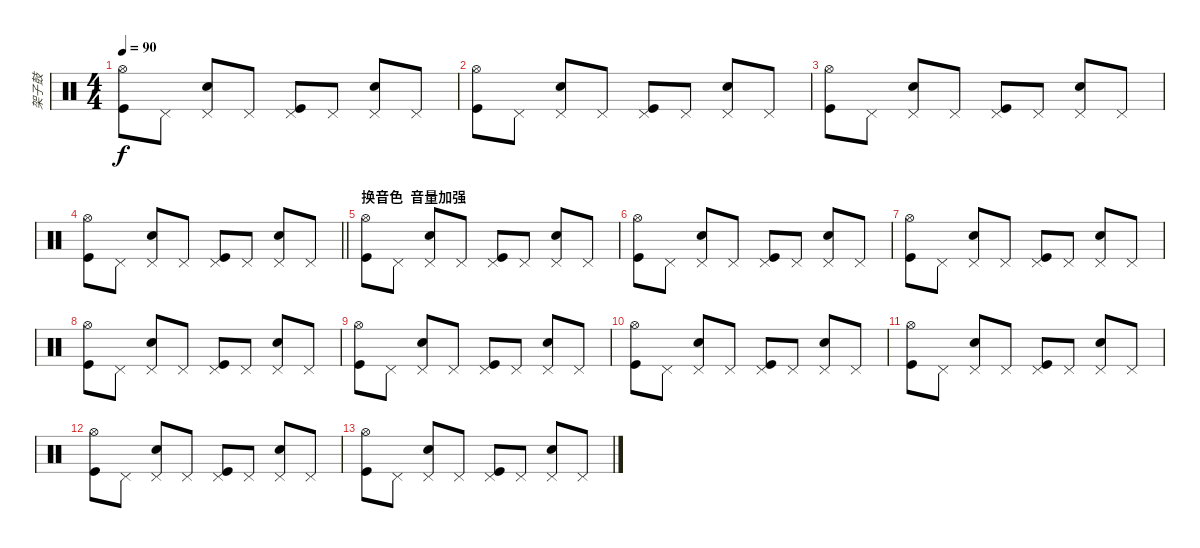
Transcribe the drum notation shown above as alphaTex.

\track ("架子鼓" "架子鼓") {instrument percussion}
\staff {score}
\articulation defaults
\ts (4 4)
\tempo 90
\clef neutral
\ks c
("Hi-Hat (open)" "Kick (hit)").8{dy f} "Pedal Hi-Hat (hit)".8 ("Snare (hit) 2" "Pedal Hi-Hat (hit)").8 "Pedal Hi-Hat (hit)".8 ("Pedal Hi-Hat (hit)" "Kick (hit)").8 "Pedal Hi-Hat (hit)".8 ("Snare (hit) 2" "Pedal Hi-Hat (hit)").8 "Pedal Hi-Hat (hit)".8 |
("Hi-Hat (open)" "Kick (hit)").8 "Pedal Hi-Hat (hit)".8 ("Snare (hit) 2" "Pedal Hi-Hat (hit)").8 "Pedal Hi-Hat (hit)".8 ("Pedal Hi-Hat (hit)" "Kick (hit)").8 "Pedal Hi-Hat (hit)".8 ("Snare (hit) 2" "Pedal Hi-Hat (hit)").8 "Pedal Hi-Hat (hit)".8 |
("Hi-Hat (open)" "Kick (hit)").8 "Pedal Hi-Hat (hit)".8 ("Snare (hit) 2" "Pedal Hi-Hat (hit)").8 "Pedal Hi-Hat (hit)".8 ("Pedal Hi-Hat (hit)" "Kick (hit)").8 "Pedal Hi-Hat (hit)".8 ("Snare (hit) 2" "Pedal Hi-Hat (hit)").8 "Pedal Hi-Hat (hit)".8 |
\barLineRight lightlight
("Hi-Hat (open)" "Kick (hit)").8 "Pedal Hi-Hat (hit)".8 ("Snare (hit) 2" "Pedal Hi-Hat (hit)").8 "Pedal Hi-Hat (hit)".8 ("Pedal Hi-Hat (hit)" "Kick (hit)").8 "Pedal Hi-Hat (hit)".8 ("Snare (hit) 2" "Pedal Hi-Hat (hit)").8 "Pedal Hi-Hat (hit)".8 |
\section ("" "换音色  音量加强")
("Hi-Hat (open)" "Kick (hit)").8 "Pedal Hi-Hat (hit)".8 ("Snare (hit) 2" "Pedal Hi-Hat (hit)").8 "Pedal Hi-Hat (hit)".8 ("Pedal Hi-Hat (hit)" "Kick (hit)").8 "Pedal Hi-Hat (hit)".8 ("Snare (hit) 2" "Pedal Hi-Hat (hit)").8 "Pedal Hi-Hat (hit)".8 |
("Hi-Hat (open)" "Kick (hit)").8 "Pedal Hi-Hat (hit)".8 ("Snare (hit) 2" "Pedal Hi-Hat (hit)").8 "Pedal Hi-Hat (hit)".8 ("Pedal Hi-Hat (hit)" "Kick (hit)").8 "Pedal Hi-Hat (hit)".8 ("Snare (hit) 2" "Pedal Hi-Hat (hit)").8 "Pedal Hi-Hat (hit)".8 |
("Hi-Hat (open)" "Kick (hit)").8 "Pedal Hi-Hat (hit)".8 ("Snare (hit) 2" "Pedal Hi-Hat (hit)").8 "Pedal Hi-Hat (hit)".8 ("Pedal Hi-Hat (hit)" "Kick (hit)").8 "Pedal Hi-Hat (hit)".8 ("Snare (hit) 2" "Pedal Hi-Hat (hit)").8 "Pedal Hi-Hat (hit)".8 |
("Hi-Hat (open)" "Kick (hit)").8 "Pedal Hi-Hat (hit)".8 ("Snare (hit) 2" "Pedal Hi-Hat (hit)").8 "Pedal Hi-Hat (hit)".8 ("Pedal Hi-Hat (hit)" "Kick (hit)").8 "Pedal Hi-Hat (hit)".8 ("Snare (hit) 2" "Pedal Hi-Hat (hit)").8 "Pedal Hi-Hat (hit)".8 |
("Hi-Hat (open)" "Kick (hit)").8 "Pedal Hi-Hat (hit)".8 ("Snare (hit) 2" "Pedal Hi-Hat (hit)").8 "Pedal Hi-Hat (hit)".8 ("Pedal Hi-Hat (hit)" "Kick (hit)").8 "Pedal Hi-Hat (hit)".8 ("Snare (hit) 2" "Pedal Hi-Hat (hit)").8 "Pedal Hi-Hat (hit)".8 |
("Hi-Hat (open)" "Kick (hit)").8 "Pedal Hi-Hat (hit)".8 ("Snare (hit) 2" "Pedal Hi-Hat (hit)").8 "Pedal Hi-Hat (hit)".8 ("Pedal Hi-Hat (hit)" "Kick (hit)").8 "Pedal Hi-Hat (hit)".8 ("Snare (hit) 2" "Pedal Hi-Hat (hit)").8 "Pedal Hi-Hat (hit)".8 |
("Hi-Hat (open)" "Kick (hit)").8 "Pedal Hi-Hat (hit)".8 ("Snare (hit) 2" "Pedal Hi-Hat (hit)").8 "Pedal Hi-Hat (hit)".8 ("Pedal Hi-Hat (hit)" "Kick (hit)").8 "Pedal Hi-Hat (hit)".8 ("Snare (hit) 2" "Pedal Hi-Hat (hit)").8 "Pedal Hi-Hat (hit)".8 |
("Hi-Hat (open)" "Kick (hit)").8 "Pedal Hi-Hat (hit)".8 ("Snare (hit) 2" "Pedal Hi-Hat (hit)").8 "Pedal Hi-Hat (hit)".8 ("Pedal Hi-Hat (hit)" "Kick (hit)").8 "Pedal Hi-Hat (hit)".8 ("Snare (hit) 2" "Pedal Hi-Hat (hit)").8 "Pedal Hi-Hat (hit)".8 |
("Hi-Hat (open)" "Kick (hit)").8 "Pedal Hi-Hat (hit)".8 ("Snare (hit) 2" "Pedal Hi-Hat (hit)").8 "Pedal Hi-Hat (hit)".8 ("Pedal Hi-Hat (hit)" "Kick (hit)").8 "Pedal Hi-Hat (hit)".8 ("Snare (hit) 2" "Pedal Hi-Hat (hit)").8 "Pedal Hi-Hat (hit)".8
